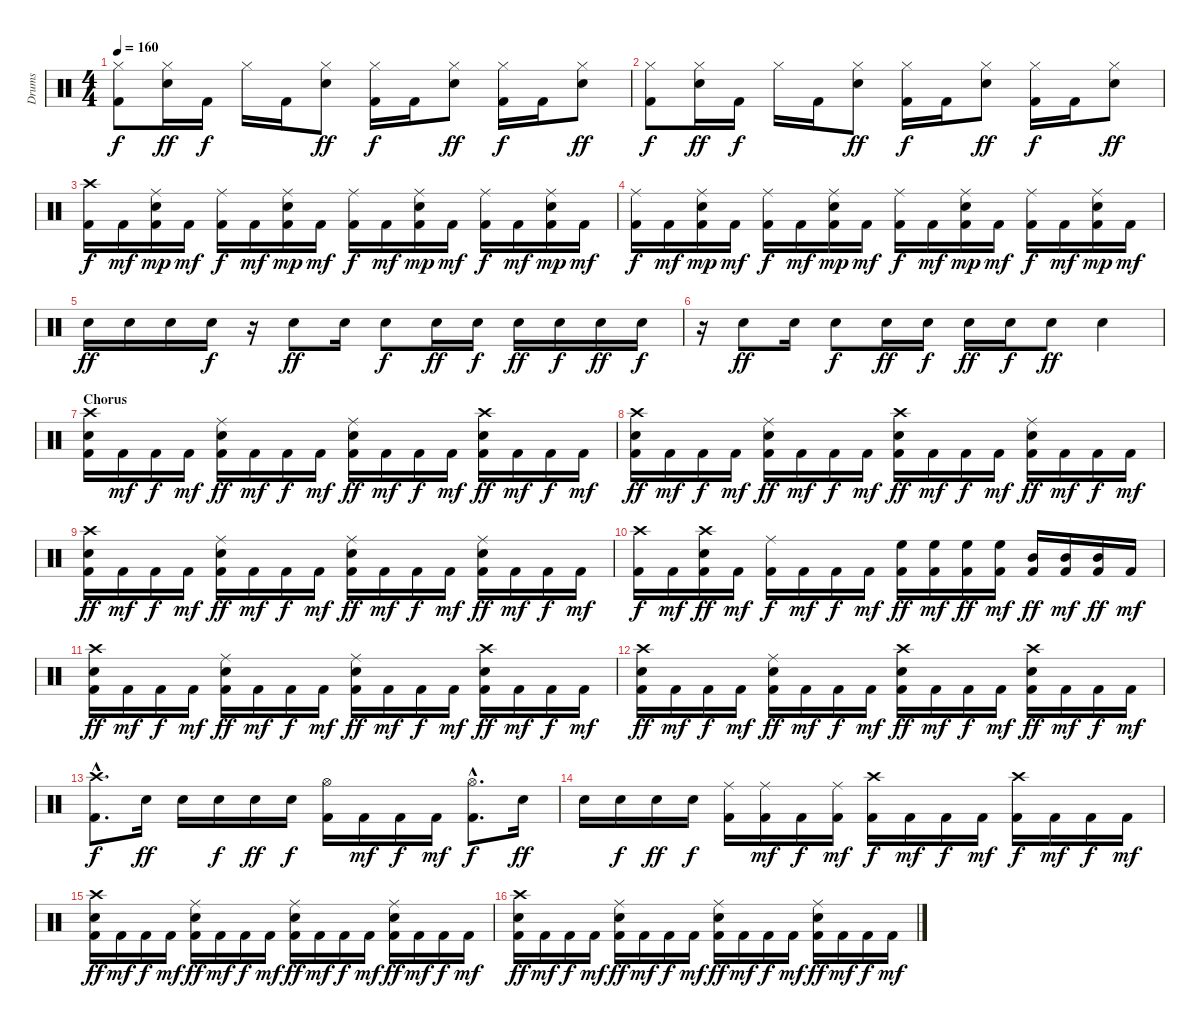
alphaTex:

\track ("Drums" "Drums") {instrument percussion}
\staff {score}
\articulation defaults
\ts (4 4)
\tempo 160
\clef neutral
\ks c
("Hi-Hat (closed)" "Kick (hit) 2").8{dy f} ("Hi-Hat (closed)" "Snare (hit) 2").16{dy ff} "Kick (hit) 2".16{dy f} "Hi-Hat (closed)".16 "Kick (hit) 2".16 ("Hi-Hat (closed)" "Snare (hit) 2").8{dy ff} ("Hi-Hat (closed)" "Kick (hit) 2").16{dy f} "Kick (hit) 2".16 ("Hi-Hat (closed)" "Snare (hit) 2").8{dy ff} ("Hi-Hat (closed)" "Kick (hit) 2").16{dy f} "Kick (hit) 2".16 ("Hi-Hat (closed)" "Snare (hit) 2").8{dy ff} |
("Hi-Hat (closed)" "Kick (hit) 2").8{dy f} ("Hi-Hat (closed)" "Snare (hit) 2").16{dy ff} "Kick (hit) 2".16{dy f} "Hi-Hat (closed)".16 "Kick (hit) 2".16 ("Hi-Hat (closed)" "Snare (hit) 2").8{dy ff} ("Hi-Hat (closed)" "Kick (hit) 2").16{dy f} "Kick (hit) 2".16 ("Hi-Hat (closed)" "Snare (hit) 2").8{dy ff} ("Hi-Hat (closed)" "Kick (hit) 2").16{dy f} "Kick (hit) 2".16 ("Hi-Hat (closed)" "Snare (hit) 2").8{dy ff} |
("Crash high (hit)" "Kick (hit) 2").16{dy f} "Kick (hit) 2".16{dy mf} ("Snare (hit) 2" "Ride (middle)" "Kick (hit) 2").16{dy mp} "Kick (hit) 2".16{dy mf} ("Ride (middle)" "Kick (hit) 2").16{dy f} "Kick (hit) 2".16{dy mf} ("Snare (hit) 2" "Ride (middle)" "Kick (hit) 2").16{dy mp} "Kick (hit) 2".16{dy mf} ("Ride (middle)" "Kick (hit) 2").16{dy f} "Kick (hit) 2".16{dy mf} ("Snare (hit) 2" "Ride (middle)" "Kick (hit) 2").16{dy mp} "Kick (hit) 2".16{dy mf} ("Ride (middle)" "Kick (hit) 2").16{dy f} "Kick (hit) 2".16{dy mf} ("Snare (hit) 2" "Ride (middle)" "Kick (hit) 2").16{dy mp} "Kick (hit) 2".16{dy mf} |
("Ride (middle)" "Kick (hit) 2").16{dy f} "Kick (hit) 2".16{dy mf} ("Snare (hit) 2" "Ride (middle)" "Kick (hit) 2").16{dy mp} "Kick (hit) 2".16{dy mf} ("Ride (middle)" "Kick (hit) 2").16{dy f} "Kick (hit) 2".16{dy mf} ("Snare (hit) 2" "Ride (middle)" "Kick (hit) 2").16{dy mp} "Kick (hit) 2".16{dy mf} ("Ride (middle)" "Kick (hit) 2").16{dy f} "Kick (hit) 2".16{dy mf} ("Snare (hit) 2" "Ride (middle)" "Kick (hit) 2").16{dy mp} "Kick (hit) 2".16{dy mf} ("Ride (middle)" "Kick (hit) 2").16{dy f} "Kick (hit) 2".16{dy mf} ("Snare (hit) 2" "Ride (middle)" "Kick (hit) 2").16{dy mp} "Kick (hit) 2".16{dy mf} |
"Snare (hit) 2".16{dy ff} "Snare (hit) 2".16 "Snare (hit) 2".16 "Snare (hit) 2".16{dy f} r.16 "Snare (hit) 2".8{dy ff} "Snare (hit) 2".16 "Snare (hit) 2".8{dy f} "Snare (hit) 2".16{dy ff} "Snare (hit) 2".16{dy f} "Snare (hit) 2".16{dy ff} "Snare (hit) 2".16{dy f} "Snare (hit) 2".16{dy ff} "Snare (hit) 2".16{dy f} |
r.16 "Snare (hit) 2".8{dy ff} "Snare (hit) 2".16 "Snare (hit) 2".8{dy f} "Snare (hit) 2".16{dy ff} "Snare (hit) 2".16{dy f} "Snare (hit) 2".16{dy ff} "Snare (hit) 2".16{dy f} "Snare (hit) 2".8{dy ff} "Snare (hit) 2".4 |
\section ("" "Chorus")
("Snare (hit) 2" "Crash high (hit)" "Kick (hit) 2").16 "Kick (hit) 2".16{dy mf} "Kick (hit) 2".16{dy f} "Kick (hit) 2".16{dy mf} ("Snare (hit) 2" "Ride (middle)" "Kick (hit) 2").16{dy ff} "Kick (hit) 2".16{dy mf} "Kick (hit) 2".16{dy f} "Kick (hit) 2".16{dy mf} ("Snare (hit) 2" "Ride (middle)" "Kick (hit) 2").16{dy ff} "Kick (hit) 2".16{dy mf} "Kick (hit) 2".16{dy f} "Kick (hit) 2".16{dy mf} ("Snare (hit) 2" "Crash high (hit)" "Kick (hit) 2").16{dy ff} "Kick (hit) 2".16{dy mf} "Kick (hit) 2".16{dy f} "Kick (hit) 2".16{dy mf} |
("Snare (hit) 2" "Crash high (hit)" "Kick (hit) 2").16{dy ff} "Kick (hit) 2".16{dy mf} "Kick (hit) 2".16{dy f} "Kick (hit) 2".16{dy mf} ("Snare (hit) 2" "Ride (middle)" "Kick (hit) 2").16{dy ff} "Kick (hit) 2".16{dy mf} "Kick (hit) 2".16{dy f} "Kick (hit) 2".16{dy mf} ("Snare (hit) 2" "Crash high (hit)" "Kick (hit) 2").16{dy ff} "Kick (hit) 2".16{dy mf} "Kick (hit) 2".16{dy f} "Kick (hit) 2".16{dy mf} ("Snare (hit) 2" "Ride (middle)" "Kick (hit) 2").16{dy ff} "Kick (hit) 2".16{dy mf} "Kick (hit) 2".16{dy f} "Kick (hit) 2".16{dy mf} |
("Snare (hit) 2" "Crash high (hit)" "Kick (hit) 2").16{dy ff} "Kick (hit) 2".16{dy mf} "Kick (hit) 2".16{dy f} "Kick (hit) 2".16{dy mf} ("Snare (hit) 2" "Ride (middle)" "Kick (hit) 2").16{dy ff} "Kick (hit) 2".16{dy mf} "Kick (hit) 2".16{dy f} "Kick (hit) 2".16{dy mf} ("Snare (hit) 2" "Ride (middle)" "Kick (hit) 2").16{dy ff} "Kick (hit) 2".16{dy mf} "Kick (hit) 2".16{dy f} "Kick (hit) 2".16{dy mf} ("Snare (hit) 2" "Ride (middle)" "Kick (hit) 2").16{dy ff} "Kick (hit) 2".16{dy mf} "Kick (hit) 2".16{dy f} "Kick (hit) 2".16{dy mf} |
("Crash high (hit)" "Kick (hit) 2").16{dy f} "Kick (hit) 2".16{dy mf} ("Snare (hit) 2" "Crash high (hit)" "Kick (hit) 2").16{dy ff} "Kick (hit) 2".16{dy mf} ("Ride (middle)" "Kick (hit) 2").16{dy f} "Kick (hit) 2".16{dy mf} "Kick (hit) 2".16{dy f} "Kick (hit) 2".16{dy mf} ("High Floor Tom (hit)" "Kick (hit) 2").16{dy ff} ("High Floor Tom (hit)" "Kick (hit) 2").16{dy mf} ("High Floor Tom (hit)" "Kick (hit) 2").16{dy ff} ("High Floor Tom (hit)" "Kick (hit) 2").16{dy mf} ("Mid Tom (hit)" "Kick (hit) 2").16{dy ff} ("Mid Tom (hit)" "Kick (hit) 2").16{dy mf} ("Mid Tom (hit)" "Kick (hit) 2").16{dy ff} "Kick (hit) 2".16{dy mf} |
("Snare (hit) 2" "Crash high (hit)" "Kick (hit) 2").16{dy ff} "Kick (hit) 2".16{dy mf} "Kick (hit) 2".16{dy f} "Kick (hit) 2".16{dy mf} ("Snare (hit) 2" "Ride (middle)" "Kick (hit) 2").16{dy ff} "Kick (hit) 2".16{dy mf} "Kick (hit) 2".16{dy f} "Kick (hit) 2".16{dy mf} ("Snare (hit) 2" "Ride (middle)" "Kick (hit) 2").16{dy ff} "Kick (hit) 2".16{dy mf} "Kick (hit) 2".16{dy f} "Kick (hit) 2".16{dy mf} ("Snare (hit) 2" "Crash high (hit)" "Kick (hit) 2").16{dy ff} "Kick (hit) 2".16{dy mf} "Kick (hit) 2".16{dy f} "Kick (hit) 2".16{dy mf} |
("Snare (hit) 2" "Crash high (hit)" "Kick (hit) 2").16{dy ff} "Kick (hit) 2".16{dy mf} "Kick (hit) 2".16{dy f} "Kick (hit) 2".16{dy mf} ("Snare (hit) 2" "Ride (middle)" "Kick (hit) 2").16{dy ff} "Kick (hit) 2".16{dy mf} "Kick (hit) 2".16{dy f} "Kick (hit) 2".16{dy mf} ("Snare (hit) 2" "Crash high (hit)" "Kick (hit) 2").16{dy ff} "Kick (hit) 2".16{dy mf} "Kick (hit) 2".16{dy f} "Kick (hit) 2".16{dy mf} ("Crash high (hit)" "Snare (hit) 2" "Kick (hit) 2").16{dy ff} "Kick (hit) 2".16{dy mf} "Kick (hit) 2".16{dy f} "Kick (hit) 2".16{dy mf} |
("Crash high (hit)"{hac} "Kick (hit) 2"{hac}).8{d dy f} "Snare (hit) 2".16{dy ff} "Snare (hit) 2".16 "Snare (hit) 2".16{dy f} "Snare (hit) 2".16{dy ff} "Snare (hit) 2".16{dy f} ("Hi-Hat (open)" "Kick (hit) 2").16 "Kick (hit) 2".16{dy mf} "Kick (hit) 2".16{dy f} "Kick (hit) 2".16{dy mf} ("Hi-Hat (open)"{hac} "Kick (hit) 2"{hac}).8{d dy f} "Snare (hit) 2".16{dy ff} |
"Snare (hit) 2".16 "Snare (hit) 2".16{dy f} "Snare (hit) 2".16{dy ff} "Snare (hit) 2".16{dy f} ("Ride (middle)" "Kick (hit) 2").16 ("Ride (middle)" "Kick (hit) 2").16{dy mf} "Kick (hit) 2".16{dy f} ("Ride (middle)" "Kick (hit) 2").16{dy mf} ("Crash high (hit)" "Kick (hit) 2").16{dy f} "Kick (hit) 2".16{dy mf} "Kick (hit) 2".16{dy f} "Kick (hit) 2".16{dy mf} ("Crash high (hit)" "Kick (hit) 2").16{dy f} "Kick (hit) 2".16{dy mf} "Kick (hit) 2".16{dy f} "Kick (hit) 2".16{dy mf} |
("Snare (hit) 2" "Crash high (hit)" "Kick (hit) 2").16{dy ff} "Kick (hit) 2".16{dy mf} "Kick (hit) 2".16{dy f} "Kick (hit) 2".16{dy mf} ("Snare (hit) 2" "Ride (middle)" "Kick (hit) 2").16{dy ff} "Kick (hit) 2".16{dy mf} "Kick (hit) 2".16{dy f} "Kick (hit) 2".16{dy mf} ("Snare (hit) 2" "Ride (middle)" "Kick (hit) 2").16{dy ff} "Kick (hit) 2".16{dy mf} "Kick (hit) 2".16{dy f} "Kick (hit) 2".16{dy mf} ("Snare (hit) 2" "Ride (middle)" "Kick (hit) 2").16{dy ff} "Kick (hit) 2".16{dy mf} "Kick (hit) 2".16{dy f} "Kick (hit) 2".16{dy mf} |
("Snare (hit) 2" "Crash high (hit)" "Kick (hit) 2").16{dy ff} "Kick (hit) 2".16{dy mf} "Kick (hit) 2".16{dy f} "Kick (hit) 2".16{dy mf} ("Snare (hit) 2" "Ride (middle)" "Kick (hit) 2").16{dy ff} "Kick (hit) 2".16{dy mf} "Kick (hit) 2".16{dy f} "Kick (hit) 2".16{dy mf} ("Snare (hit) 2" "Ride (middle)" "Kick (hit) 2").16{dy ff} "Kick (hit) 2".16{dy mf} "Kick (hit) 2".16{dy f} "Kick (hit) 2".16{dy mf} ("Snare (hit) 2" "Ride (middle)" "Kick (hit) 2").16{dy ff} "Kick (hit) 2".16{dy mf} "Kick (hit) 2".16{dy f} "Kick (hit) 2".16{dy mf}
